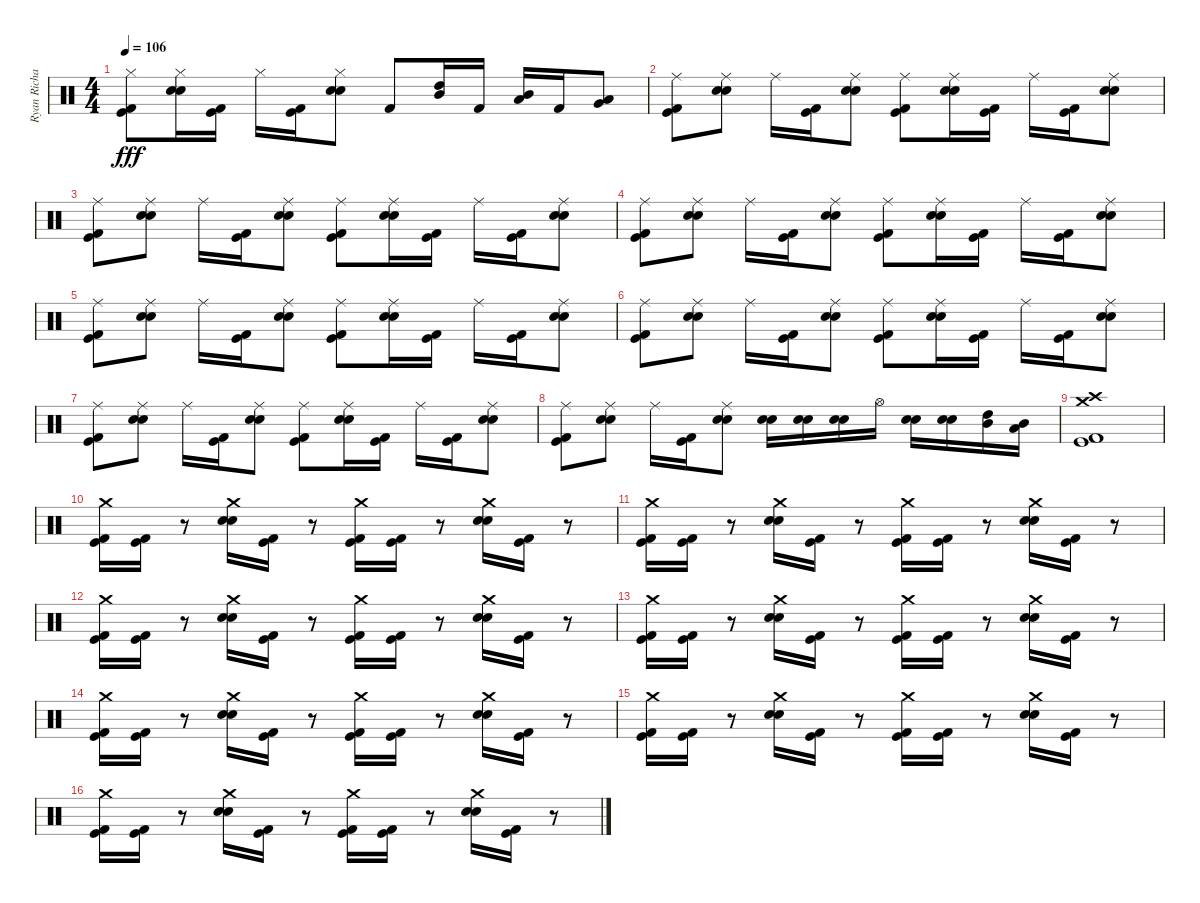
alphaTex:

\track ("Ryan Richards" "Ryan Richa") {instrument percussion}
\staff {score}
\articulation defaults
\ts (4 4)
\tempo 106
\clef neutral
\ks c
("Kick (hit)" "Hi-Hat (closed)" "Kick (hit) 2").8{dy fff} ("Hi-Hat (closed)" "Snare (hit) 2" "Electric Snare (hit)").16 ("Kick (hit)" "Kick (hit) 2").16 "Hi-Hat (closed)".16 ("Kick (hit)" "Kick (hit) 2").16 ("Hi-Hat (closed)" "Snare (hit) 2" "Electric Snare (hit)").8 "Kick (hit) 2".8 ("High Tom (hit)" "Mid Tom (hit)").16 "Kick (hit) 2".16 ("Mid Tom (hit)" "Low Tom (hit)").16 "Kick (hit) 2".16 ("Low Tom (hit)" "Very Low Tom (hit)").8 |
("Kick (hit)" "Ride (middle)" "Kick (hit) 2").8 ("Ride (middle)" "Snare (hit) 2" "Electric Snare (hit)").8 "Ride (middle)".16 ("Kick (hit)" "Kick (hit) 2").16 ("Ride (middle)" "Snare (hit) 2" "Electric Snare (hit)").8 ("Kick (hit)" "Ride (middle)" "Kick (hit) 2").8 ("Ride (middle)" "Snare (hit) 2" "Electric Snare (hit)").16 ("Kick (hit)" "Kick (hit) 2").16 "Ride (middle)".16 ("Kick (hit)" "Kick (hit) 2").16 ("Ride (middle)" "Snare (hit) 2" "Electric Snare (hit)").8 |
("Kick (hit)" "Ride (middle)" "Kick (hit) 2").8 ("Ride (middle)" "Snare (hit) 2" "Electric Snare (hit)").8 "Ride (middle)".16 ("Kick (hit)" "Kick (hit) 2").16 ("Ride (middle)" "Snare (hit) 2" "Electric Snare (hit)").8 ("Kick (hit)" "Ride (middle)" "Kick (hit) 2").8 ("Ride (middle)" "Snare (hit) 2" "Electric Snare (hit)").16 ("Kick (hit)" "Kick (hit) 2").16 "Ride (middle)".16 ("Kick (hit)" "Kick (hit) 2").16 ("Ride (middle)" "Snare (hit) 2" "Electric Snare (hit)").8 |
("Kick (hit)" "Ride (middle)" "Kick (hit) 2").8 ("Ride (middle)" "Snare (hit) 2" "Electric Snare (hit)").8 "Ride (middle)".16 ("Kick (hit)" "Kick (hit) 2").16 ("Ride (middle)" "Snare (hit) 2" "Electric Snare (hit)").8 ("Kick (hit)" "Ride (middle)" "Kick (hit) 2").8 ("Ride (middle)" "Snare (hit) 2" "Electric Snare (hit)").16 ("Kick (hit)" "Kick (hit) 2").16 "Ride (middle)".16 ("Kick (hit)" "Kick (hit) 2").16 ("Ride (middle)" "Snare (hit) 2" "Electric Snare (hit)").8 |
("Kick (hit)" "Ride (middle)" "Kick (hit) 2").8 ("Ride (middle)" "Snare (hit) 2" "Electric Snare (hit)").8 "Ride (middle)".16 ("Kick (hit)" "Kick (hit) 2").16 ("Ride (middle)" "Snare (hit) 2" "Electric Snare (hit)").8 ("Kick (hit)" "Ride (middle)" "Kick (hit) 2").8 ("Ride (middle)" "Snare (hit) 2" "Electric Snare (hit)").16 ("Kick (hit)" "Kick (hit) 2").16 "Ride (middle)".16 ("Kick (hit)" "Kick (hit) 2").16 ("Ride (middle)" "Snare (hit) 2" "Electric Snare (hit)").8 |
("Kick (hit)" "Ride (middle)" "Kick (hit) 2").8 ("Ride (middle)" "Snare (hit) 2" "Electric Snare (hit)").8 "Ride (middle)".16 ("Kick (hit)" "Kick (hit) 2").16 ("Ride (middle)" "Snare (hit) 2" "Electric Snare (hit)").8 ("Kick (hit)" "Ride (middle)" "Kick (hit) 2").8 ("Ride (middle)" "Snare (hit) 2" "Electric Snare (hit)").16 ("Kick (hit)" "Kick (hit) 2").16 "Ride (middle)".16 ("Kick (hit)" "Kick (hit) 2").16 ("Ride (middle)" "Snare (hit) 2" "Electric Snare (hit)").8 |
("Kick (hit)" "Ride (middle)" "Kick (hit) 2").8 ("Ride (middle)" "Snare (hit) 2" "Electric Snare (hit)").8 "Ride (middle)".16 ("Kick (hit)" "Kick (hit) 2").16 ("Ride (middle)" "Snare (hit) 2" "Electric Snare (hit)").8 ("Kick (hit)" "Ride (middle)" "Kick (hit) 2").8 ("Ride (middle)" "Snare (hit) 2" "Electric Snare (hit)").16 ("Kick (hit)" "Kick (hit) 2").16 "Ride (middle)".16 ("Kick (hit)" "Kick (hit) 2").16 ("Ride (middle)" "Snare (hit) 2" "Electric Snare (hit)").8 |
("Kick (hit)" "Ride (middle)" "Kick (hit) 2").8 ("Ride (middle)" "Snare (hit) 2" "Electric Snare (hit)").8 "Ride (middle)".16 ("Kick (hit)" "Kick (hit) 2").16 ("Ride (middle)" "Snare (hit) 2" "Electric Snare (hit)").8 ("Snare (hit) 2" "Electric Snare (hit)").16 ("Snare (hit) 2" "Electric Snare (hit)").16 ("Snare (hit) 2" "Electric Snare (hit)").16 "Hi-Hat (open)".16 ("Snare (hit) 2" "Electric Snare (hit)").16 ("Snare (hit) 2" "Electric Snare (hit)").16 ("High Tom (hit)" "Mid Tom (hit)").16 ("Mid Tom (hit)" "Low Tom (hit)").16 |
("Kick (hit)" "Crash high (hit)" "Crash medium (hit)" "Kick (hit) 2").1 |
("Kick (hit)" "Crash medium (hit)" "Kick (hit) 2").16 ("Kick (hit)" "Kick (hit) 2").16 r.8 ("Crash medium (hit)" "Snare (hit) 2" "Electric Snare (hit)").16 ("Kick (hit)" "Kick (hit) 2").16 r.8 ("Kick (hit)" "Crash medium (hit)" "Kick (hit) 2").16 ("Kick (hit)" "Kick (hit) 2").16 r.8 ("Crash medium (hit)" "Snare (hit) 2" "Electric Snare (hit)").16 ("Kick (hit)" "Kick (hit) 2").16 r.8 |
("Kick (hit)" "Crash medium (hit)" "Kick (hit) 2").16 ("Kick (hit)" "Kick (hit) 2").16 r.8 ("Crash medium (hit)" "Snare (hit) 2" "Electric Snare (hit)").16 ("Kick (hit)" "Kick (hit) 2").16 r.8 ("Kick (hit)" "Crash medium (hit)" "Kick (hit) 2").16 ("Kick (hit)" "Kick (hit) 2").16 r.8 ("Crash medium (hit)" "Snare (hit) 2" "Electric Snare (hit)").16 ("Kick (hit)" "Kick (hit) 2").16 r.8 |
("Kick (hit)" "Crash medium (hit)" "Kick (hit) 2").16 ("Kick (hit)" "Kick (hit) 2").16 r.8 ("Crash medium (hit)" "Snare (hit) 2" "Electric Snare (hit)").16 ("Kick (hit)" "Kick (hit) 2").16 r.8 ("Kick (hit)" "Crash medium (hit)" "Kick (hit) 2").16 ("Kick (hit)" "Kick (hit) 2").16 r.8 ("Crash medium (hit)" "Snare (hit) 2" "Electric Snare (hit)").16 ("Kick (hit)" "Kick (hit) 2").16 r.8 |
("Kick (hit)" "Crash medium (hit)" "Kick (hit) 2").16 ("Kick (hit)" "Kick (hit) 2").16 r.8 ("Crash medium (hit)" "Snare (hit) 2" "Electric Snare (hit)").16 ("Kick (hit)" "Kick (hit) 2").16 r.8 ("Kick (hit)" "Crash medium (hit)" "Kick (hit) 2").16 ("Kick (hit)" "Kick (hit) 2").16 r.8 ("Crash medium (hit)" "Snare (hit) 2" "Electric Snare (hit)").16 ("Kick (hit)" "Kick (hit) 2").16 r.8 |
("Kick (hit)" "Crash medium (hit)" "Kick (hit) 2").16 ("Kick (hit)" "Kick (hit) 2").16 r.8 ("Crash medium (hit)" "Snare (hit) 2" "Electric Snare (hit)").16 ("Kick (hit)" "Kick (hit) 2").16 r.8 ("Kick (hit)" "Crash medium (hit)" "Kick (hit) 2").16 ("Kick (hit)" "Kick (hit) 2").16 r.8 ("Crash medium (hit)" "Snare (hit) 2" "Electric Snare (hit)").16 ("Kick (hit)" "Kick (hit) 2").16 r.8 |
("Kick (hit)" "Crash medium (hit)" "Kick (hit) 2").16 ("Kick (hit)" "Kick (hit) 2").16 r.8 ("Crash medium (hit)" "Snare (hit) 2" "Electric Snare (hit)").16 ("Kick (hit)" "Kick (hit) 2").16 r.8 ("Kick (hit)" "Crash medium (hit)" "Kick (hit) 2").16 ("Kick (hit)" "Kick (hit) 2").16 r.8 ("Crash medium (hit)" "Snare (hit) 2" "Electric Snare (hit)").16 ("Kick (hit)" "Kick (hit) 2").16 r.8 |
("Kick (hit)" "Crash medium (hit)" "Kick (hit) 2").16 ("Kick (hit)" "Kick (hit) 2").16 r.8 ("Crash medium (hit)" "Snare (hit) 2" "Electric Snare (hit)").16 ("Kick (hit)" "Kick (hit) 2").16 r.8 ("Kick (hit)" "Crash medium (hit)" "Kick (hit) 2").16 ("Kick (hit)" "Kick (hit) 2").16 r.8 ("Crash medium (hit)" "Snare (hit) 2" "Electric Snare (hit)").16 ("Kick (hit)" "Kick (hit) 2").16 r.8
